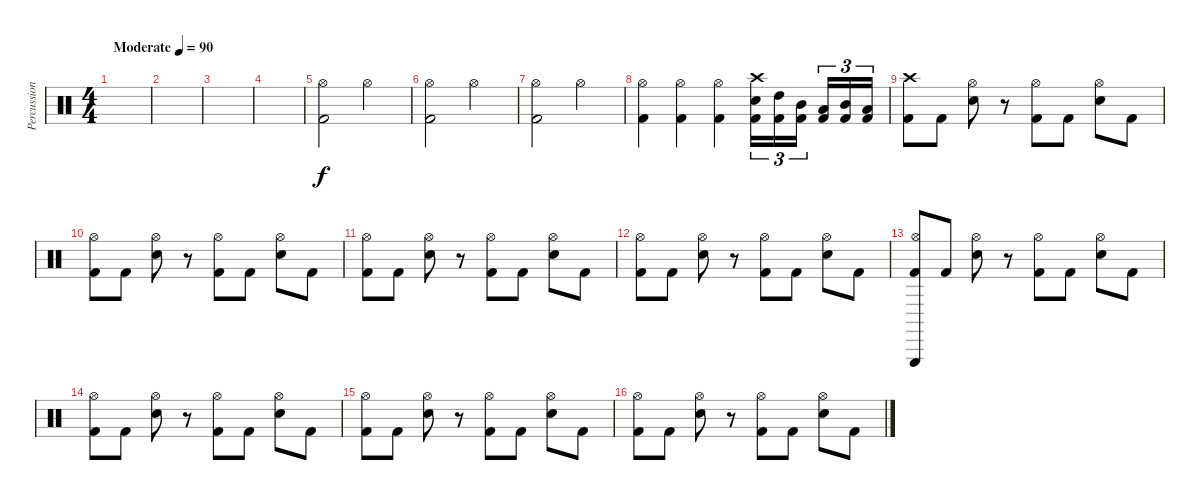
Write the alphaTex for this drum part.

\track ("Percussion" "Percussion") {instrument percussion}
\staff {score}
\articulation defaults
\ts (4 4)
\tempo (90 "Moderate")
\clef neutral
\ks c
|
|
|
|
("Hi-Hat (open)" "Kick (hit) 2").2 "Hi-Hat (open)".2 |
("Hi-Hat (open)" "Kick (hit) 2").2 "Hi-Hat (open)".2 |
("Hi-Hat (open)" "Kick (hit) 2").2 "Hi-Hat (open)".2 |
("Hi-Hat (open)" "Kick (hit) 2").4 ("Hi-Hat (open)" "Kick (hit) 2").4 ("Hi-Hat (open)" "Kick (hit) 2").4 ("Electric Snare (hit)" "Kick (hit) 2" "Crash high (hit)").16{tu (3 2)} ("High Tom (hit)" "Kick (hit) 2").16{tu (3 2)} ("Mid Tom (hit)" "Kick (hit) 2").16{tu (3 2) beam splitsecondary} ("Low Tom (hit)" "Kick (hit) 2").16{tu (3 2)} ("Mid Tom (hit)" "Kick (hit) 2").16{tu (3 2)} ("Low Tom (hit)" "Kick (hit) 2").16{tu (3 2)} |
("Crash high (hit)" "Kick (hit) 2").8 "Kick (hit) 2".8 ("Hi-Hat (open)" "Electric Snare (hit)").8 r.8 ("Hi-Hat (open)" "Kick (hit) 2").8 "Kick (hit) 2".8 ("Hi-Hat (open)" "Electric Snare (hit)").8 "Kick (hit) 2".8 |
("Hi-Hat (open)" "Kick (hit) 2").8 "Kick (hit) 2".8 ("Hi-Hat (open)" "Electric Snare (hit)").8 r.8 ("Hi-Hat (open)" "Kick (hit) 2").8 "Kick (hit) 2".8 ("Hi-Hat (open)" "Electric Snare (hit)").8 "Kick (hit) 2".8 |
("Hi-Hat (open)" "Kick (hit) 2").8 "Kick (hit) 2".8 ("Hi-Hat (open)" "Electric Snare (hit)").8 r.8 ("Hi-Hat (open)" "Kick (hit) 2").8 "Kick (hit) 2".8 ("Hi-Hat (open)" "Electric Snare (hit)").8 "Kick (hit) 2".8 |
("Hi-Hat (open)" "Kick (hit) 2").8 "Kick (hit) 2".8 ("Hi-Hat (open)" "Electric Snare (hit)").8 r.8 ("Hi-Hat (open)" "Kick (hit) 2").8 "Kick (hit) 2".8 ("Hi-Hat (open)" "Electric Snare (hit)").8 "Kick (hit) 2".8 |
("Hi-Hat (open)" "Kick (hit) 2" "Triangle (hit)").8 "Kick (hit) 2".8 ("Hi-Hat (open)" "Electric Snare (hit)").8 r.8 ("Hi-Hat (open)" "Kick (hit) 2").8 "Kick (hit) 2".8 ("Hi-Hat (open)" "Electric Snare (hit)").8 "Kick (hit) 2".8 |
("Hi-Hat (open)" "Kick (hit) 2").8 "Kick (hit) 2".8 ("Hi-Hat (open)" "Electric Snare (hit)").8 r.8 ("Hi-Hat (open)" "Kick (hit) 2").8 "Kick (hit) 2".8 ("Hi-Hat (open)" "Electric Snare (hit)").8 "Kick (hit) 2".8 |
("Hi-Hat (open)" "Kick (hit) 2").8 "Kick (hit) 2".8 ("Hi-Hat (open)" "Electric Snare (hit)").8 r.8 ("Hi-Hat (open)" "Kick (hit) 2").8 "Kick (hit) 2".8 ("Hi-Hat (open)" "Electric Snare (hit)").8 "Kick (hit) 2".8 |
("Hi-Hat (open)" "Kick (hit) 2").8 "Kick (hit) 2".8 ("Hi-Hat (open)" "Electric Snare (hit)").8 r.8 ("Hi-Hat (open)" "Kick (hit) 2").8 "Kick (hit) 2".8 ("Hi-Hat (open)" "Electric Snare (hit)").8 "Kick (hit) 2".8
